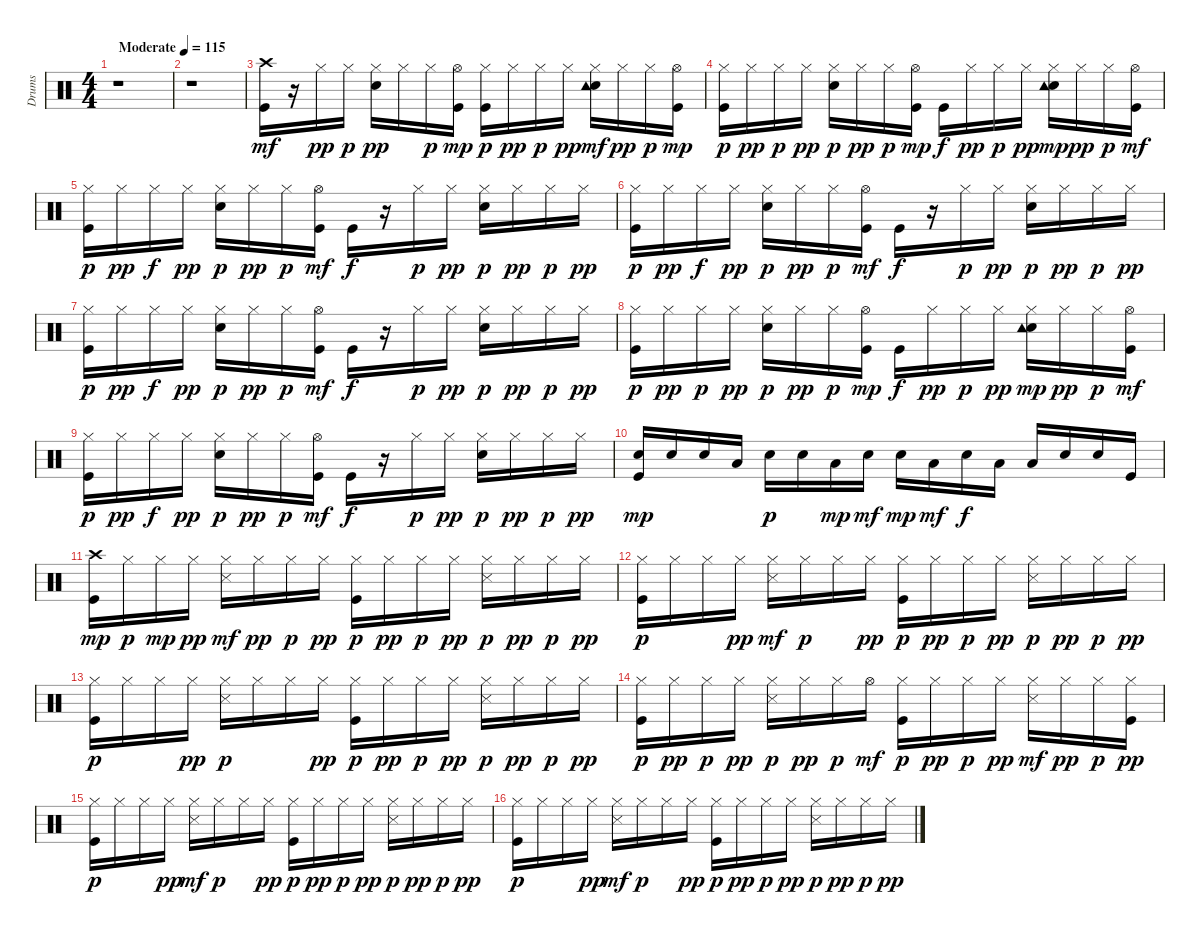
\track ("Drums  " "Drums  ") {instrument percussion}
\staff {score}
\articulation defaults
\ts (4 4)
\tempo (115 "Moderate")
\clef neutral
\ks c
r.1{dy mf} |
r.1 |
("Kick (hit)" "Crash high (hit)").16 r.16 "Hi-Hat (closed)".16{dy pp} "Hi-Hat (closed)".16{dy p} ("Snare (hit) 2" "Hi-Hat (closed)").16{dy pp} "Hi-Hat (closed)".16 "Hi-Hat (closed)".16{dy p} ("Kick (hit)" "Hi-Hat (open)").16{dy mp} ("Kick (hit)" "Hi-Hat (closed)").16{dy p} "Hi-Hat (closed)".16{dy pp} "Hi-Hat (closed)".16{dy p} "Hi-Hat (closed)".16{dy pp} ("Snare (hit) 2" "Hi-Hat (closed)" "Tambourine (hit)").16{dy mf} "Hi-Hat (closed)".16{dy pp} "Hi-Hat (closed)".16{dy p} ("Kick (hit)" "Hi-Hat (open)").16{dy mp} |
("Kick (hit)" "Hi-Hat (closed)").16{dy p} "Hi-Hat (closed)".16{dy pp} "Hi-Hat (closed)".16{dy p} "Hi-Hat (closed)".16{dy pp} ("Snare (hit) 2" "Hi-Hat (closed)").16{dy p} "Hi-Hat (closed)".16{dy pp} "Hi-Hat (closed)".16{dy p} ("Kick (hit)" "Hi-Hat (open)").16{dy mp} "Kick (hit)".16{dy f} "Hi-Hat (closed)".16{dy pp} "Hi-Hat (closed)".16{dy p} "Hi-Hat (closed)".16{dy pp} ("Snare (hit) 2" "Hi-Hat (closed)" "Tambourine (hit)").16{dy mp} "Hi-Hat (closed)".16{dy pp} "Hi-Hat (closed)".16{dy p} ("Kick (hit)" "Hi-Hat (open)").16{dy mf} |
("Kick (hit)" "Hi-Hat (closed)").16{dy p} "Hi-Hat (closed)".16{dy pp} "Hi-Hat (closed)".16{dy f} "Hi-Hat (closed)".16{dy pp} ("Snare (hit) 2" "Hi-Hat (closed)").16{dy p} "Hi-Hat (closed)".16{dy pp} "Hi-Hat (closed)".16{dy p} ("Kick (hit)" "Hi-Hat (open)").16{dy mf} "Kick (hit)".16{dy f} r.16 "Hi-Hat (closed)".16{dy p} "Hi-Hat (closed)".16{dy pp} ("Snare (hit) 2" "Hi-Hat (closed)").16{dy p} "Hi-Hat (closed)".16{dy pp} "Hi-Hat (closed)".16{dy p} "Hi-Hat (closed)".16{dy pp} |
("Kick (hit)" "Hi-Hat (closed)").16{dy p} "Hi-Hat (closed)".16{dy pp} "Hi-Hat (closed)".16{dy f} "Hi-Hat (closed)".16{dy pp} ("Snare (hit) 2" "Hi-Hat (closed)").16{dy p} "Hi-Hat (closed)".16{dy pp} "Hi-Hat (closed)".16{dy p} ("Kick (hit)" "Hi-Hat (open)").16{dy mf} "Kick (hit)".16{dy f} r.16 "Hi-Hat (closed)".16{dy p} "Hi-Hat (closed)".16{dy pp} ("Snare (hit) 2" "Hi-Hat (closed)").16{dy p} "Hi-Hat (closed)".16{dy pp} "Hi-Hat (closed)".16{dy p} "Hi-Hat (closed)".16{dy pp} |
("Kick (hit)" "Hi-Hat (closed)").16{dy p} "Hi-Hat (closed)".16{dy pp} "Hi-Hat (closed)".16{dy f} "Hi-Hat (closed)".16{dy pp} ("Snare (hit) 2" "Hi-Hat (closed)").16{dy p} "Hi-Hat (closed)".16{dy pp} "Hi-Hat (closed)".16{dy p} ("Kick (hit)" "Hi-Hat (open)").16{dy mf} "Kick (hit)".16{dy f} r.16 "Hi-Hat (closed)".16{dy p} "Hi-Hat (closed)".16{dy pp} ("Snare (hit) 2" "Hi-Hat (closed)").16{dy p} "Hi-Hat (closed)".16{dy pp} "Hi-Hat (closed)".16{dy p} "Hi-Hat (closed)".16{dy pp} |
("Kick (hit)" "Hi-Hat (closed)").16{dy p} "Hi-Hat (closed)".16{dy pp} "Hi-Hat (closed)".16{dy p} "Hi-Hat (closed)".16{dy pp} ("Snare (hit) 2" "Hi-Hat (closed)").16{dy p} "Hi-Hat (closed)".16{dy pp} "Hi-Hat (closed)".16{dy p} ("Kick (hit)" "Hi-Hat (open)").16{dy mp} "Kick (hit)".16{dy f} "Hi-Hat (closed)".16{dy pp} "Hi-Hat (closed)".16{dy p} "Hi-Hat (closed)".16{dy pp} ("Snare (hit) 2" "Hi-Hat (closed)" "Tambourine (hit)").16{dy mp} "Hi-Hat (closed)".16{dy pp} "Hi-Hat (closed)".16{dy p} ("Kick (hit)" "Hi-Hat (open)").16{dy mf} |
("Kick (hit)" "Hi-Hat (closed)").16{dy p} "Hi-Hat (closed)".16{dy pp} "Hi-Hat (closed)".16{dy f} "Hi-Hat (closed)".16{dy pp} ("Snare (hit) 2" "Hi-Hat (closed)").16{dy p} "Hi-Hat (closed)".16{dy pp} "Hi-Hat (closed)".16{dy p} ("Kick (hit)" "Hi-Hat (open)").16{dy mf} "Kick (hit)".16{dy f} r.16 "Hi-Hat (closed)".16{dy p} "Hi-Hat (closed)".16{dy pp} ("Snare (hit) 2" "Hi-Hat (closed)").16{dy p} "Hi-Hat (closed)".16{dy pp} "Hi-Hat (closed)".16{dy p} "Hi-Hat (closed)".16{dy pp} |
("Kick (hit)" "Snare (hit) 2").16{dy mp} "Snare (hit) 2".16 "Snare (hit) 2".16 "Low Tom (hit)".16 "Snare (hit) 2".16{dy p} "Snare (hit) 2".16 "Low Floor Tom (hit)".16{dy mp} "Snare (hit) 2".16{dy mf} "Snare (hit) 2".16{dy mp} "Low Floor Tom (hit)".16{dy mf} "Snare (hit) 2".16{dy f} "Low Floor Tom (hit)".16 "Low Floor Tom (hit)".16 "Snare (hit) 2".16 "Snare (hit) 2".16 "Kick (hit)".16 |
("Kick (hit)" "Crash high (hit)").16{dy mp} "Hi-Hat (closed)".16{dy p} "Hi-Hat (closed)".16{dy mp} "Hi-Hat (closed)".16{dy pp} ("Hi-Hat (closed)" "Snare (side stick) 3").16{dy mf} "Hi-Hat (closed)".16{dy pp} "Hi-Hat (closed)".16{dy p} "Hi-Hat (closed)".16{dy pp} ("Kick (hit)" "Hi-Hat (closed)").16{dy p} "Hi-Hat (closed)".16{dy pp} "Hi-Hat (closed)".16{dy p} "Hi-Hat (closed)".16{dy pp} ("Hi-Hat (closed)" "Snare (side stick) 3").16{dy p} "Hi-Hat (closed)".16{dy pp} "Hi-Hat (closed)".16{dy p} "Hi-Hat (closed)".16{dy pp} |
("Kick (hit)" "Hi-Hat (closed)").16{dy p} "Hi-Hat (closed)".16 "Hi-Hat (closed)".16 "Hi-Hat (closed)".16{dy pp} ("Hi-Hat (closed)" "Snare (side stick) 3").16{dy mf} "Hi-Hat (closed)".16{dy p} "Hi-Hat (closed)".16 "Hi-Hat (closed)".16{dy pp} ("Kick (hit)" "Hi-Hat (closed)").16{dy p} "Hi-Hat (closed)".16{dy pp} "Hi-Hat (closed)".16{dy p} "Hi-Hat (closed)".16{dy pp} ("Hi-Hat (closed)" "Snare (side stick) 3").16{dy p} "Hi-Hat (closed)".16{dy pp} "Hi-Hat (closed)".16{dy p} "Hi-Hat (closed)".16{dy pp} |
("Kick (hit)" "Hi-Hat (closed)").16{dy p} "Hi-Hat (closed)".16 "Hi-Hat (closed)".16 "Hi-Hat (closed)".16{dy pp} ("Hi-Hat (closed)" "Snare (side stick) 3").16{dy p} "Hi-Hat (closed)".16 "Hi-Hat (closed)".16 "Hi-Hat (closed)".16{dy pp} ("Kick (hit)" "Hi-Hat (closed)").16{dy p} "Hi-Hat (closed)".16{dy pp} "Hi-Hat (closed)".16{dy p} "Hi-Hat (closed)".16{dy pp} ("Hi-Hat (closed)" "Snare (side stick) 3").16{dy p} "Hi-Hat (closed)".16{dy pp} "Hi-Hat (closed)".16{dy p} "Hi-Hat (closed)".16{dy pp} |
("Kick (hit)" "Hi-Hat (closed)").16{dy p} "Hi-Hat (closed)".16{dy pp} "Hi-Hat (closed)".16{dy p} "Hi-Hat (closed)".16{dy pp} ("Hi-Hat (closed)" "Snare (side stick) 3").16{dy p} "Hi-Hat (closed)".16{dy pp} "Hi-Hat (closed)".16{dy p} "Hi-Hat (open)".16{dy mf} ("Kick (hit)" "Hi-Hat (closed)").16{dy p} "Hi-Hat (closed)".16{dy pp} "Hi-Hat (closed)".16{dy p} "Hi-Hat (closed)".16{dy pp} ("Hi-Hat (closed)" "Snare (side stick) 3").16{dy mf} "Hi-Hat (closed)".16{dy pp} "Hi-Hat (closed)".16{dy p} ("Kick (hit)" "Hi-Hat (closed)").16{dy pp} |
("Kick (hit)" "Hi-Hat (closed)").16{dy p} "Hi-Hat (closed)".16 "Hi-Hat (closed)".16 "Hi-Hat (closed)".16{dy pp} ("Hi-Hat (closed)" "Snare (side stick) 3").16{dy mf} "Hi-Hat (closed)".16{dy p} "Hi-Hat (closed)".16 "Hi-Hat (closed)".16{dy pp} ("Kick (hit)" "Hi-Hat (closed)").16{dy p} "Hi-Hat (closed)".16{dy pp} "Hi-Hat (closed)".16{dy p} "Hi-Hat (closed)".16{dy pp} ("Hi-Hat (closed)" "Snare (side stick) 3").16{dy p} "Hi-Hat (closed)".16{dy pp} "Hi-Hat (closed)".16{dy p} "Hi-Hat (closed)".16{dy pp} |
("Kick (hit)" "Hi-Hat (closed)").16{dy p} "Hi-Hat (closed)".16 "Hi-Hat (closed)".16 "Hi-Hat (closed)".16{dy pp} ("Hi-Hat (closed)" "Snare (side stick) 3").16{dy mf} "Hi-Hat (closed)".16{dy p} "Hi-Hat (closed)".16 "Hi-Hat (closed)".16{dy pp} ("Kick (hit)" "Hi-Hat (closed)").16{dy p} "Hi-Hat (closed)".16{dy pp} "Hi-Hat (closed)".16{dy p} "Hi-Hat (closed)".16{dy pp} ("Hi-Hat (closed)" "Snare (side stick) 3").16{dy p} "Hi-Hat (closed)".16{dy pp} "Hi-Hat (closed)".16{dy p} "Hi-Hat (closed)".16{dy pp}
